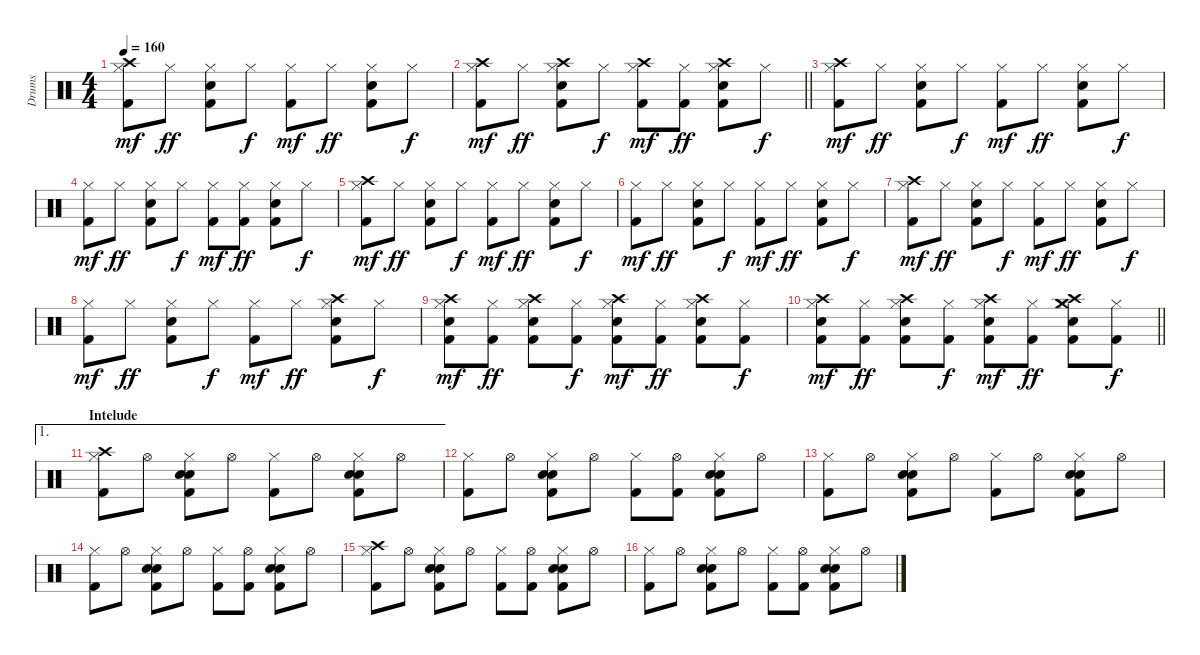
\track ("Drums" "Drums") {instrument percussion}
\staff {score}
\articulation defaults
\ts (4 4)
\tempo 160
\clef neutral
\ks c
("Hi-Hat (closed)" "Crash high (hit)" "Kick (hit) 2").8{dy mf} "Hi-Hat (closed)".8{dy ff} ("Hi-Hat (closed)" "Electric Snare (hit)" "Kick (hit) 2").8 "Hi-Hat (closed)".8{dy f} ("Hi-Hat (closed)" "Kick (hit) 2").8{dy mf} "Hi-Hat (closed)".8{dy ff} ("Hi-Hat (closed)" "Electric Snare (hit)" "Kick (hit) 2").8 "Hi-Hat (closed)".8{dy f} |
\barLineRight lightlight
("Hi-Hat (closed)" "Crash high (hit)" "Kick (hit) 2").8{dy mf} "Hi-Hat (closed)".8{dy ff} ("Hi-Hat (closed)" "Electric Snare (hit)" "Crash high (hit)" "Kick (hit) 2").8 "Hi-Hat (closed)".8{dy f} ("Hi-Hat (closed)" "Crash high (hit)" "Kick (hit) 2").8{dy mf} ("Hi-Hat (closed)" "Kick (hit) 2").8{dy ff} ("Hi-Hat (closed)" "Electric Snare (hit)" "Crash high (hit)" "Kick (hit) 2").8 "Hi-Hat (closed)".8{dy f} |
("Hi-Hat (closed)" "Crash high (hit)" "Kick (hit) 2").8{dy mf} "Hi-Hat (closed)".8{dy ff} ("Hi-Hat (closed)" "Electric Snare (hit)" "Kick (hit) 2").8 "Hi-Hat (closed)".8{dy f} ("Hi-Hat (closed)" "Kick (hit) 2").8{dy mf} "Hi-Hat (closed)".8{dy ff} ("Hi-Hat (closed)" "Electric Snare (hit)" "Kick (hit) 2").8 "Hi-Hat (closed)".8{dy f} |
("Hi-Hat (closed)" "Kick (hit) 2").8{dy mf} "Hi-Hat (closed)".8{dy ff} ("Hi-Hat (closed)" "Electric Snare (hit)" "Kick (hit) 2").8 "Hi-Hat (closed)".8{dy f} ("Hi-Hat (closed)" "Kick (hit) 2").8{dy mf} ("Hi-Hat (closed)" "Kick (hit) 2").8{dy ff} ("Hi-Hat (closed)" "Electric Snare (hit)" "Kick (hit) 2").8 "Hi-Hat (closed)".8{dy f} |
("Hi-Hat (closed)" "Crash high (hit)" "Kick (hit) 2").8{dy mf} "Hi-Hat (closed)".8{dy ff} ("Hi-Hat (closed)" "Electric Snare (hit)" "Kick (hit) 2").8 "Hi-Hat (closed)".8{dy f} ("Hi-Hat (closed)" "Kick (hit) 2").8{dy mf} "Hi-Hat (closed)".8{dy ff} ("Hi-Hat (closed)" "Electric Snare (hit)" "Kick (hit) 2").8 "Hi-Hat (closed)".8{dy f} |
("Hi-Hat (closed)" "Kick (hit) 2").8{dy mf} "Hi-Hat (closed)".8{dy ff} ("Hi-Hat (closed)" "Electric Snare (hit)" "Kick (hit) 2").8 "Hi-Hat (closed)".8{dy f} ("Hi-Hat (closed)" "Kick (hit) 2").8{dy mf} "Hi-Hat (closed)".8{dy ff} ("Hi-Hat (closed)" "Electric Snare (hit)" "Kick (hit) 2").8 "Hi-Hat (closed)".8{dy f} |
("Hi-Hat (closed)" "Crash high (hit)" "Kick (hit) 2").8{dy mf} "Hi-Hat (closed)".8{dy ff} ("Hi-Hat (closed)" "Electric Snare (hit)" "Kick (hit) 2").8 "Hi-Hat (closed)".8{dy f} ("Hi-Hat (closed)" "Kick (hit) 2").8{dy mf} "Hi-Hat (closed)".8{dy ff} ("Hi-Hat (closed)" "Electric Snare (hit)" "Kick (hit) 2").8 "Hi-Hat (closed)".8{dy f} |
("Hi-Hat (closed)" "Kick (hit) 2").8{dy mf} "Hi-Hat (closed)".8{dy ff} ("Hi-Hat (closed)" "Electric Snare (hit)" "Kick (hit) 2").8 "Hi-Hat (closed)".8{dy f} ("Hi-Hat (closed)" "Kick (hit) 2").8{dy mf} "Hi-Hat (closed)".8{dy ff} ("Hi-Hat (closed)" "Electric Snare (hit)" "Crash high (hit)" "Kick (hit) 2").8 "Hi-Hat (closed)".8{dy f} |
("Hi-Hat (closed)" "Electric Snare (hit)" "Crash high (hit)" "Kick (hit) 2").8{dy mf} ("Hi-Hat (closed)" "Kick (hit) 2").8{dy ff} ("Hi-Hat (closed)" "Electric Snare (hit)" "Crash high (hit)" "Kick (hit) 2").8 ("Hi-Hat (closed)" "Kick (hit) 2").8{dy f} ("Hi-Hat (closed)" "Electric Snare (hit)" "Crash high (hit)" "Kick (hit) 2").8{dy mf} ("Hi-Hat (closed)" "Kick (hit) 2").8{dy ff} ("Hi-Hat (closed)" "Electric Snare (hit)" "Crash high (hit)" "Kick (hit) 2").8 ("Hi-Hat (closed)" "Kick (hit) 2").8{dy f} |
\barLineRight lightlight
("Hi-Hat (closed)" "Electric Snare (hit)" "Crash high (hit)" "Kick (hit) 2").8{dy mf} ("Hi-Hat (closed)" "Kick (hit) 2").8{dy ff} ("Hi-Hat (closed)" "Electric Snare (hit)" "Crash high (hit)" "Kick (hit) 2").8 ("Hi-Hat (closed)" "Kick (hit) 2").8{dy f} ("Hi-Hat (closed)" "Electric Snare (hit)" "Crash high (hit)" "Kick (hit) 2").8{dy mf} ("Hi-Hat (closed)" "Kick (hit) 2").8{dy ff} ("Hi-Hat (closed)" "Electric Snare (hit)" "Crash high (hit)" "Crash medium (hit)" "Kick (hit) 2").8 ("Hi-Hat (closed)" "Kick (hit) 2").8{dy f} |
\ae 1
\section ("" "Intelude")
("Hi-Hat (closed)" "Crash high (hit)" "Kick (hit) 2").8 "Hi-Hat (open)".8 ("Hi-Hat (closed)" "Electric Snare (hit)" "Hand Clap (hit)" "Kick (hit) 2").8 "Hi-Hat (open)".8 ("Hi-Hat (closed)" "Kick (hit) 2").8 "Hi-Hat (open)".8 ("Hi-Hat (closed)" "Electric Snare (hit)" "Hand Clap (hit)" "Kick (hit) 2").8 "Hi-Hat (open)".8 |
("Hi-Hat (closed)" "Kick (hit) 2").8 "Hi-Hat (open)".8 ("Hi-Hat (closed)" "Electric Snare (hit)" "Hand Clap (hit)" "Kick (hit) 2").8 "Hi-Hat (open)".8 ("Hi-Hat (closed)" "Kick (hit) 2").8 ("Hi-Hat (open)" "Kick (hit) 2").8 ("Hi-Hat (closed)" "Electric Snare (hit)" "Hand Clap (hit)" "Kick (hit) 2").8 "Hi-Hat (open)".8 |
("Hi-Hat (closed)" "Kick (hit) 2").8 "Hi-Hat (open)".8 ("Hi-Hat (closed)" "Electric Snare (hit)" "Hand Clap (hit)" "Kick (hit) 2").8 "Hi-Hat (open)".8 ("Hi-Hat (closed)" "Kick (hit) 2").8 "Hi-Hat (open)".8 ("Hi-Hat (closed)" "Electric Snare (hit)" "Hand Clap (hit)" "Kick (hit) 2").8 "Hi-Hat (open)".8 |
("Hi-Hat (closed)" "Kick (hit) 2").8 "Hi-Hat (open)".8 ("Hi-Hat (closed)" "Electric Snare (hit)" "Hand Clap (hit)" "Kick (hit) 2").8 "Hi-Hat (open)".8 ("Hi-Hat (closed)" "Kick (hit) 2").8 ("Hi-Hat (open)" "Kick (hit) 2").8 ("Hi-Hat (closed)" "Electric Snare (hit)" "Hand Clap (hit)" "Kick (hit) 2").8 "Hi-Hat (open)".8 |
("Hi-Hat (closed)" "Crash high (hit)" "Kick (hit) 2").8 "Hi-Hat (open)".8 ("Hi-Hat (closed)" "Electric Snare (hit)" "Hand Clap (hit)" "Kick (hit) 2").8 "Hi-Hat (open)".8 ("Hi-Hat (closed)" "Kick (hit) 2").8 ("Hi-Hat (open)" "Kick (hit) 2").8 ("Hi-Hat (closed)" "Electric Snare (hit)" "Hand Clap (hit)" "Kick (hit) 2").8 "Hi-Hat (open)".8 |
("Hi-Hat (closed)" "Kick (hit) 2").8 "Hi-Hat (open)".8 ("Hi-Hat (closed)" "Electric Snare (hit)" "Hand Clap (hit)" "Kick (hit) 2").8 "Hi-Hat (open)".8 ("Hi-Hat (closed)" "Kick (hit) 2").8 ("Hi-Hat (open)" "Kick (hit) 2").8 ("Hi-Hat (closed)" "Electric Snare (hit)" "Hand Clap (hit)" "Kick (hit) 2").8 "Hi-Hat (open)".8
